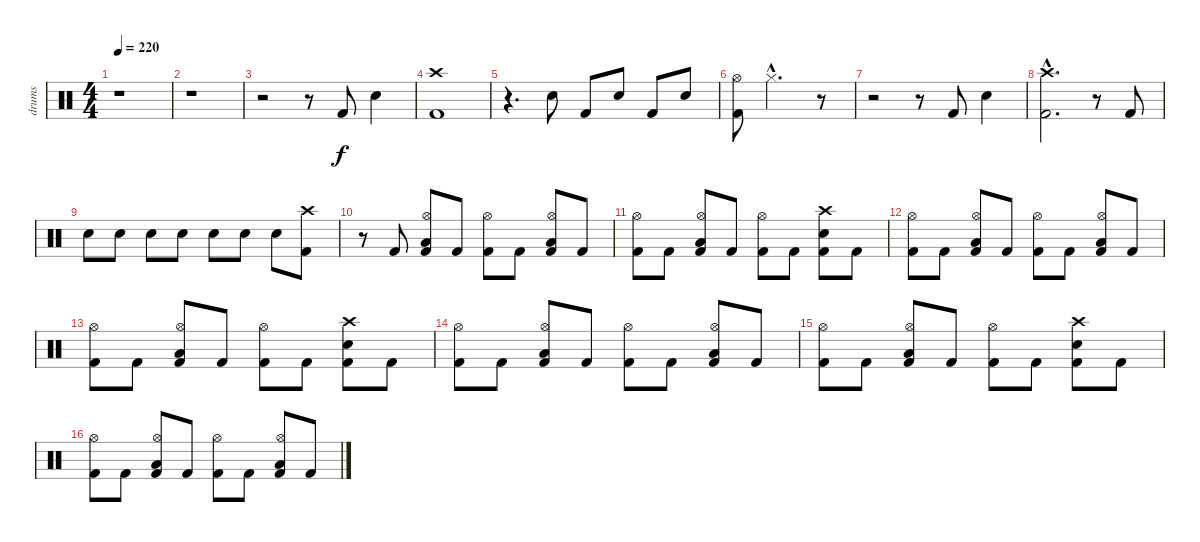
\track ("drums" "drums") {instrument percussion}
\staff {score}
\articulation defaults
\ts (4 4)
\tempo 220
\clef neutral
\ks c
r.1{dy f} |
r.1 |
r.2 r.8 "Kick (hit) 2".8 "Electric Snare (hit)".4 |
("Crash high (hit)" "Kick (hit) 2").1 |
r.4{d} "Electric Snare (hit)".8 "Kick (hit) 2".8 "Electric Snare (hit)".8 "Kick (hit) 2".8 "Electric Snare (hit)".8 |
("Hi-Hat (open)" "Kick (hit) 2").8 "Hi-Hat (closed)"{hac}.2{d} r.8 |
r.2 r.8 "Kick (hit) 2".8 "Electric Snare (hit)".4 |
("Crash high (hit)"{hac} "Kick (hit) 2"{hac}).2{d} r.8 "Kick (hit) 2".8 |
"Electric Snare (hit)".8 "Electric Snare (hit)".8 "Electric Snare (hit)".8 "Electric Snare (hit)".8 "Electric Snare (hit)".8 "Electric Snare (hit)".8 "Electric Snare (hit)".8 ("Crash high (hit)" "Kick (hit) 2").8 |
r.8 "Kick (hit) 2".8 ("Hi-Hat (open)" "Low Tom (hit)" "Kick (hit) 2").8 "Kick (hit) 2".8 ("Hi-Hat (open)" "Kick (hit) 2").8 "Kick (hit) 2".8 ("Hi-Hat (open)" "Low Tom (hit)" "Kick (hit) 2").8 "Kick (hit) 2".8 |
("Hi-Hat (open)" "Kick (hit) 2").8 "Kick (hit) 2".8 ("Hi-Hat (open)" "Low Tom (hit)" "Kick (hit) 2").8 "Kick (hit) 2".8 ("Hi-Hat (open)" "Kick (hit) 2").8 "Kick (hit) 2".8 ("Crash high (hit)" "Electric Snare (hit)" "Kick (hit) 2").8 "Kick (hit) 2".8 |
("Hi-Hat (open)" "Kick (hit) 2").8 "Kick (hit) 2".8 ("Hi-Hat (open)" "Low Tom (hit)" "Kick (hit) 2").8 "Kick (hit) 2".8 ("Hi-Hat (open)" "Kick (hit) 2").8 "Kick (hit) 2".8 ("Hi-Hat (open)" "Low Tom (hit)" "Kick (hit) 2").8 "Kick (hit) 2".8 |
("Hi-Hat (open)" "Kick (hit) 2").8 "Kick (hit) 2".8 ("Hi-Hat (open)" "Low Tom (hit)" "Kick (hit) 2").8 "Kick (hit) 2".8 ("Hi-Hat (open)" "Kick (hit) 2").8 "Kick (hit) 2".8 ("Crash high (hit)" "Electric Snare (hit)" "Kick (hit) 2").8 "Kick (hit) 2".8 |
("Hi-Hat (open)" "Kick (hit) 2").8 "Kick (hit) 2".8 ("Hi-Hat (open)" "Low Tom (hit)" "Kick (hit) 2").8 "Kick (hit) 2".8 ("Hi-Hat (open)" "Kick (hit) 2").8 "Kick (hit) 2".8 ("Hi-Hat (open)" "Low Tom (hit)" "Kick (hit) 2").8 "Kick (hit) 2".8 |
("Hi-Hat (open)" "Kick (hit) 2").8 "Kick (hit) 2".8 ("Hi-Hat (open)" "Low Tom (hit)" "Kick (hit) 2").8 "Kick (hit) 2".8 ("Hi-Hat (open)" "Kick (hit) 2").8 "Kick (hit) 2".8 ("Crash high (hit)" "Electric Snare (hit)" "Kick (hit) 2").8 "Kick (hit) 2".8 |
("Hi-Hat (open)" "Kick (hit) 2").8 "Kick (hit) 2".8 ("Hi-Hat (open)" "Low Tom (hit)" "Kick (hit) 2").8 "Kick (hit) 2".8 ("Hi-Hat (open)" "Kick (hit) 2").8 "Kick (hit) 2".8 ("Hi-Hat (open)" "Low Tom (hit)" "Kick (hit) 2").8 "Kick (hit) 2".8
